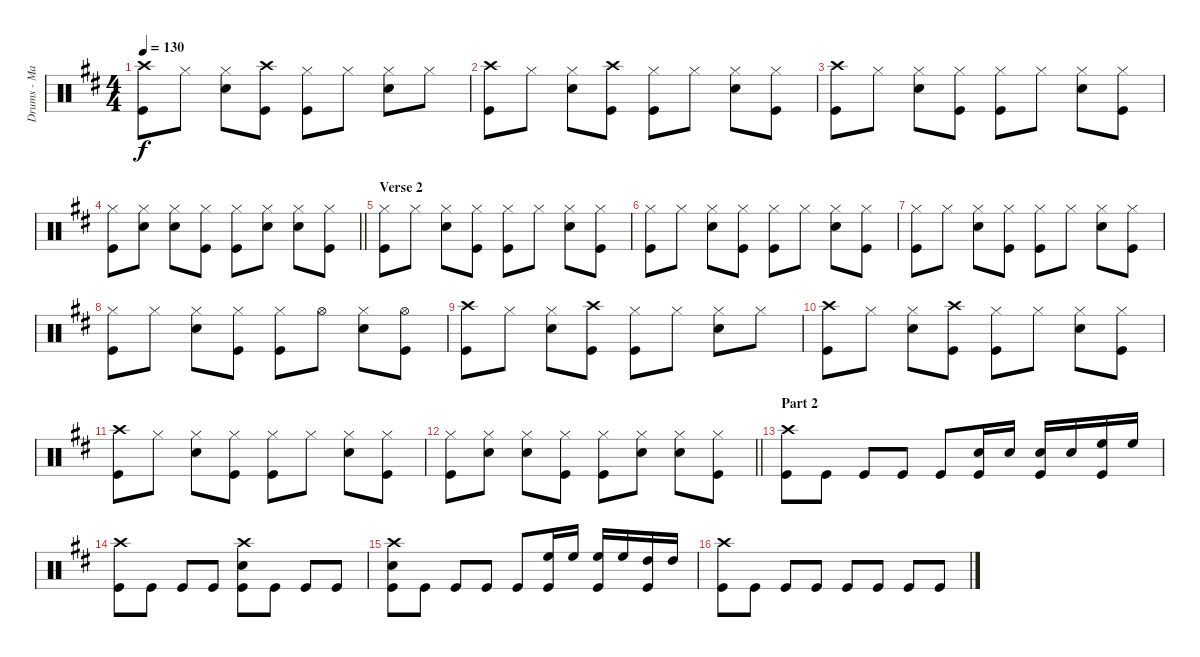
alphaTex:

\track ("Drums - Matt Helders" "Drums - Ma") {instrument percussion}
\staff {score}
\articulation defaults
\ts (4 4)
\tempo 130
\clef neutral
\ks d
("Crash high (hit)" "Kick (hit)").8{dy f} "Hi-Hat (closed)".8 ("Hi-Hat (closed)" "Snare (hit) 2").8 ("Crash high (hit)" "Kick (hit)").8 ("Hi-Hat (closed)" "Kick (hit)").8 "Hi-Hat (closed)".8 ("Hi-Hat (closed)" "Snare (hit) 2").8 "Hi-Hat (closed)".8 |
("Crash high (hit)" "Kick (hit)").8 "Hi-Hat (closed)".8 ("Hi-Hat (closed)" "Snare (hit) 2").8 ("Crash high (hit)" "Kick (hit)").8 ("Hi-Hat (closed)" "Kick (hit)").8 "Hi-Hat (closed)".8 ("Hi-Hat (closed)" "Snare (hit) 2").8 ("Hi-Hat (closed)" "Kick (hit)").8 |
("Crash high (hit)" "Kick (hit)").8 "Hi-Hat (closed)".8 ("Hi-Hat (closed)" "Snare (hit) 2").8 ("Hi-Hat (closed)" "Kick (hit)").8 ("Hi-Hat (closed)" "Kick (hit)").8 "Hi-Hat (closed)".8 ("Hi-Hat (closed)" "Snare (hit) 2").8 ("Hi-Hat (closed)" "Kick (hit)").8 |
\barLineRight lightlight
("Hi-Hat (closed)" "Kick (hit)").8 ("Hi-Hat (closed)" "Snare (hit) 2").8 ("Hi-Hat (closed)" "Snare (hit) 2").8 ("Hi-Hat (closed)" "Kick (hit)").8 ("Hi-Hat (closed)" "Kick (hit)").8 ("Hi-Hat (closed)" "Snare (hit) 2").8 ("Hi-Hat (closed)" "Snare (hit) 2").8 ("Hi-Hat (closed)" "Kick (hit)").8 |
\section ("" "Verse 2")
("Hi-Hat (closed)" "Kick (hit)").8 "Hi-Hat (closed)".8 ("Hi-Hat (closed)" "Snare (hit) 2").8 ("Hi-Hat (closed)" "Kick (hit)").8 ("Hi-Hat (closed)" "Kick (hit)").8 "Hi-Hat (closed)".8 ("Hi-Hat (closed)" "Snare (hit) 2").8 ("Hi-Hat (closed)" "Kick (hit)").8 |
("Hi-Hat (closed)" "Kick (hit)").8 "Hi-Hat (closed)".8 ("Hi-Hat (closed)" "Snare (hit) 2").8 ("Hi-Hat (closed)" "Kick (hit)").8 ("Hi-Hat (closed)" "Kick (hit)").8 "Hi-Hat (closed)".8 ("Hi-Hat (closed)" "Snare (hit) 2").8 ("Hi-Hat (closed)" "Kick (hit)").8 |
("Hi-Hat (closed)" "Kick (hit)").8 "Hi-Hat (closed)".8 ("Hi-Hat (closed)" "Snare (hit) 2").8 ("Hi-Hat (closed)" "Kick (hit)").8 ("Hi-Hat (closed)" "Kick (hit)").8 "Hi-Hat (closed)".8 ("Hi-Hat (closed)" "Snare (hit) 2").8 ("Hi-Hat (closed)" "Kick (hit)").8 |
("Hi-Hat (closed)" "Kick (hit)").8 "Hi-Hat (closed)".8 ("Hi-Hat (closed)" "Snare (hit) 2").8 ("Hi-Hat (closed)" "Kick (hit)").8 ("Hi-Hat (closed)" "Kick (hit)").8 "Hi-Hat (open)".8 ("Hi-Hat (closed)" "Snare (hit) 2").8 ("Hi-Hat (open)" "Kick (hit)").8 |
("Crash high (hit)" "Kick (hit)").8 "Hi-Hat (closed)".8 ("Hi-Hat (closed)" "Snare (hit) 2").8 ("Crash high (hit)" "Kick (hit)").8 ("Hi-Hat (closed)" "Kick (hit)").8 "Hi-Hat (closed)".8 ("Hi-Hat (closed)" "Snare (hit) 2").8 "Hi-Hat (closed)".8 |
("Crash high (hit)" "Kick (hit)").8 "Hi-Hat (closed)".8 ("Hi-Hat (closed)" "Snare (hit) 2").8 ("Crash high (hit)" "Kick (hit)").8 ("Hi-Hat (closed)" "Kick (hit)").8 "Hi-Hat (closed)".8 ("Hi-Hat (closed)" "Snare (hit) 2").8 ("Hi-Hat (closed)" "Kick (hit)").8 |
("Crash high (hit)" "Kick (hit)").8 "Hi-Hat (closed)".8 ("Hi-Hat (closed)" "Snare (hit) 2").8 ("Hi-Hat (closed)" "Kick (hit)").8 ("Hi-Hat (closed)" "Kick (hit)").8 "Hi-Hat (closed)".8 ("Hi-Hat (closed)" "Snare (hit) 2").8 ("Hi-Hat (closed)" "Kick (hit)").8 |
\barLineRight lightlight
("Hi-Hat (closed)" "Kick (hit)").8 ("Hi-Hat (closed)" "Snare (hit) 2").8 ("Hi-Hat (closed)" "Snare (hit) 2").8 ("Hi-Hat (closed)" "Kick (hit)").8 ("Hi-Hat (closed)" "Kick (hit)").8 ("Hi-Hat (closed)" "Snare (hit) 2").8 ("Hi-Hat (closed)" "Snare (hit) 2").8 ("Hi-Hat (closed)" "Kick (hit)").8 |
\section ("" "Part 2")
("Crash high (hit)" "Kick (hit)").8 "Kick (hit)".8 "Kick (hit)".8 "Kick (hit)".8 "Kick (hit)".8 ("Snare (hit) 2" "Kick (hit)").16 "Snare (hit) 2".16 ("Snare (hit) 2" "Kick (hit)").16 "Snare (hit) 2".16 ("High Floor Tom (hit)" "Kick (hit)").16 "High Floor Tom (hit)".16 |
("Crash high (hit)" "Kick (hit)").8 "Kick (hit)".8 "Kick (hit)".8 "Kick (hit)".8 ("Crash high (hit)" "Snare (hit) 2" "Kick (hit)").8 "Kick (hit)".8 "Kick (hit)".8 "Kick (hit)".8 |
("Crash high (hit)" "Snare (hit) 2" "Kick (hit)").8 "Kick (hit)".8 "Kick (hit)".8 "Kick (hit)".8 "Kick (hit)".8 ("High Floor Tom (hit)" "Kick (hit)").16 "High Floor Tom (hit)".16 ("High Floor Tom (hit)" "Kick (hit)").16 "High Floor Tom (hit)".16 ("High Tom (hit)" "Kick (hit)").16 "High Tom (hit)".16 |
("Crash high (hit)" "Kick (hit)").8 "Kick (hit)".8 "Kick (hit)".8 "Kick (hit)".8 "Kick (hit)".8 "Kick (hit)".8 "Kick (hit)".8 "Kick (hit)".8
